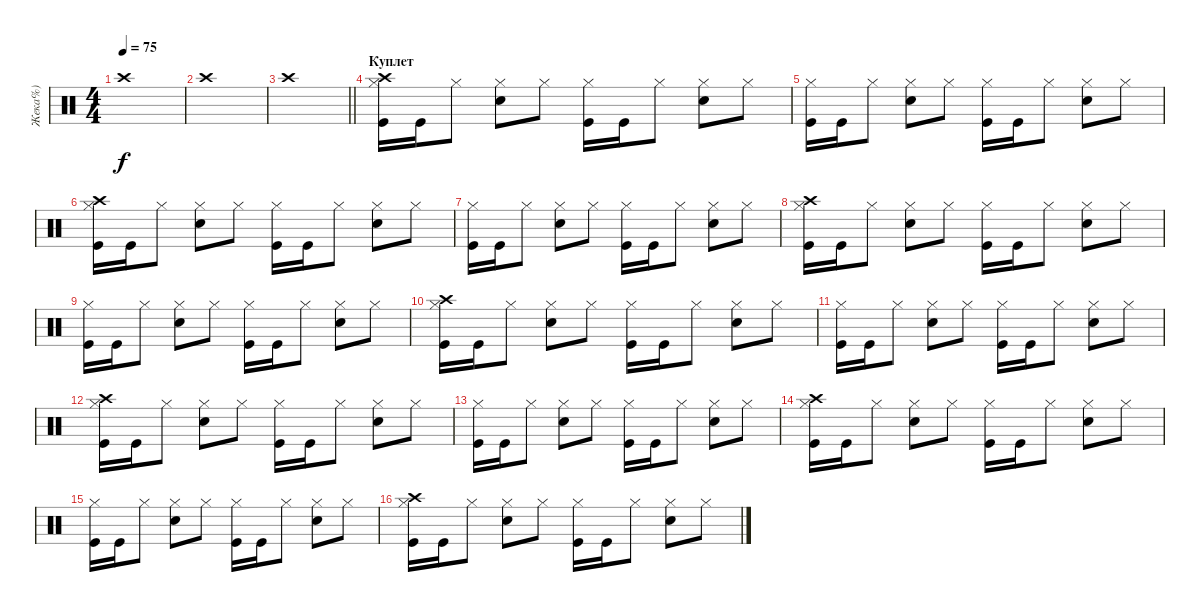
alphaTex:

\track ("Жека%)" "Жека%)") {instrument percussion}
\staff {score}
\articulation defaults
\ts (4 4)
\tempo 75
\clef neutral
\ks c "Crash high (hit)".1{dy f}
|
"Crash high (hit)".1 |
\barLineRight lightlight "Crash high (hit)".1
|
\section ("" "Куплет")
("Hi-Hat (closed)" "Kick (hit)" "Crash high (hit)").16 "Kick (hit)".16 "Hi-Hat (closed)".8 ("Hi-Hat (closed)" "Snare (hit) 2").8 "Hi-Hat (closed)".8 ("Hi-Hat (closed)" "Kick (hit)").16 "Kick (hit)".16 "Hi-Hat (closed)".8 ("Hi-Hat (closed)" "Snare (hit) 2").8 "Hi-Hat (closed)".8 |
("Hi-Hat (closed)" "Kick (hit)").16 "Kick (hit)".16 "Hi-Hat (closed)".8 ("Hi-Hat (closed)" "Snare (hit) 2").8 "Hi-Hat (closed)".8 ("Hi-Hat (closed)" "Kick (hit)").16 "Kick (hit)".16 "Hi-Hat (closed)".8 ("Hi-Hat (closed)" "Snare (hit) 2").8 "Hi-Hat (closed)".8 |
("Hi-Hat (closed)" "Kick (hit)" "Crash high (hit)").16 "Kick (hit)".16 "Hi-Hat (closed)".8 ("Hi-Hat (closed)" "Snare (hit) 2").8 "Hi-Hat (closed)".8 ("Hi-Hat (closed)" "Kick (hit)").16 "Kick (hit)".16 "Hi-Hat (closed)".8 ("Hi-Hat (closed)" "Snare (hit) 2").8 "Hi-Hat (closed)".8 |
("Hi-Hat (closed)" "Kick (hit)").16 "Kick (hit)".16 "Hi-Hat (closed)".8 ("Hi-Hat (closed)" "Snare (hit) 2").8 "Hi-Hat (closed)".8 ("Hi-Hat (closed)" "Kick (hit)").16 "Kick (hit)".16 "Hi-Hat (closed)".8 ("Hi-Hat (closed)" "Snare (hit) 2").8 "Hi-Hat (closed)".8 |
("Hi-Hat (closed)" "Kick (hit)" "Crash high (hit)").16 "Kick (hit)".16 "Hi-Hat (closed)".8 ("Hi-Hat (closed)" "Snare (hit) 2").8 "Hi-Hat (closed)".8 ("Hi-Hat (closed)" "Kick (hit)").16 "Kick (hit)".16 "Hi-Hat (closed)".8 ("Hi-Hat (closed)" "Snare (hit) 2").8 "Hi-Hat (closed)".8 |
("Hi-Hat (closed)" "Kick (hit)").16 "Kick (hit)".16 "Hi-Hat (closed)".8 ("Hi-Hat (closed)" "Snare (hit) 2").8 "Hi-Hat (closed)".8 ("Hi-Hat (closed)" "Kick (hit)").16 "Kick (hit)".16 "Hi-Hat (closed)".8 ("Hi-Hat (closed)" "Snare (hit) 2").8 "Hi-Hat (closed)".8 |
("Hi-Hat (closed)" "Kick (hit)" "Crash high (hit)").16 "Kick (hit)".16 "Hi-Hat (closed)".8 ("Hi-Hat (closed)" "Snare (hit) 2").8 "Hi-Hat (closed)".8 ("Hi-Hat (closed)" "Kick (hit)").16 "Kick (hit)".16 "Hi-Hat (closed)".8 ("Hi-Hat (closed)" "Snare (hit) 2").8 "Hi-Hat (closed)".8 |
("Hi-Hat (closed)" "Kick (hit)").16 "Kick (hit)".16 "Hi-Hat (closed)".8 ("Hi-Hat (closed)" "Snare (hit) 2").8 "Hi-Hat (closed)".8 ("Hi-Hat (closed)" "Kick (hit)").16 "Kick (hit)".16 "Hi-Hat (closed)".8 ("Hi-Hat (closed)" "Snare (hit) 2").8 "Hi-Hat (closed)".8 |
("Hi-Hat (closed)" "Kick (hit)" "Crash high (hit)").16 "Kick (hit)".16 "Hi-Hat (closed)".8 ("Hi-Hat (closed)" "Snare (hit) 2").8 "Hi-Hat (closed)".8 ("Hi-Hat (closed)" "Kick (hit)").16 "Kick (hit)".16 "Hi-Hat (closed)".8 ("Hi-Hat (closed)" "Snare (hit) 2").8 "Hi-Hat (closed)".8 |
("Hi-Hat (closed)" "Kick (hit)").16 "Kick (hit)".16 "Hi-Hat (closed)".8 ("Hi-Hat (closed)" "Snare (hit) 2").8 "Hi-Hat (closed)".8 ("Hi-Hat (closed)" "Kick (hit)").16 "Kick (hit)".16 "Hi-Hat (closed)".8 ("Hi-Hat (closed)" "Snare (hit) 2").8 "Hi-Hat (closed)".8 |
("Hi-Hat (closed)" "Kick (hit)" "Crash high (hit)").16 "Kick (hit)".16 "Hi-Hat (closed)".8 ("Hi-Hat (closed)" "Snare (hit) 2").8 "Hi-Hat (closed)".8 ("Hi-Hat (closed)" "Kick (hit)").16 "Kick (hit)".16 "Hi-Hat (closed)".8 ("Hi-Hat (closed)" "Snare (hit) 2").8 "Hi-Hat (closed)".8 |
("Hi-Hat (closed)" "Kick (hit)").16 "Kick (hit)".16 "Hi-Hat (closed)".8 ("Hi-Hat (closed)" "Snare (hit) 2").8 "Hi-Hat (closed)".8 ("Hi-Hat (closed)" "Kick (hit)").16 "Kick (hit)".16 "Hi-Hat (closed)".8 ("Hi-Hat (closed)" "Snare (hit) 2").8 "Hi-Hat (closed)".8 |
("Hi-Hat (closed)" "Kick (hit)" "Crash high (hit)").16 "Kick (hit)".16 "Hi-Hat (closed)".8 ("Hi-Hat (closed)" "Snare (hit) 2").8 "Hi-Hat (closed)".8 ("Hi-Hat (closed)" "Kick (hit)").16 "Kick (hit)".16 "Hi-Hat (closed)".8 ("Hi-Hat (closed)" "Snare (hit) 2").8 "Hi-Hat (closed)".8
